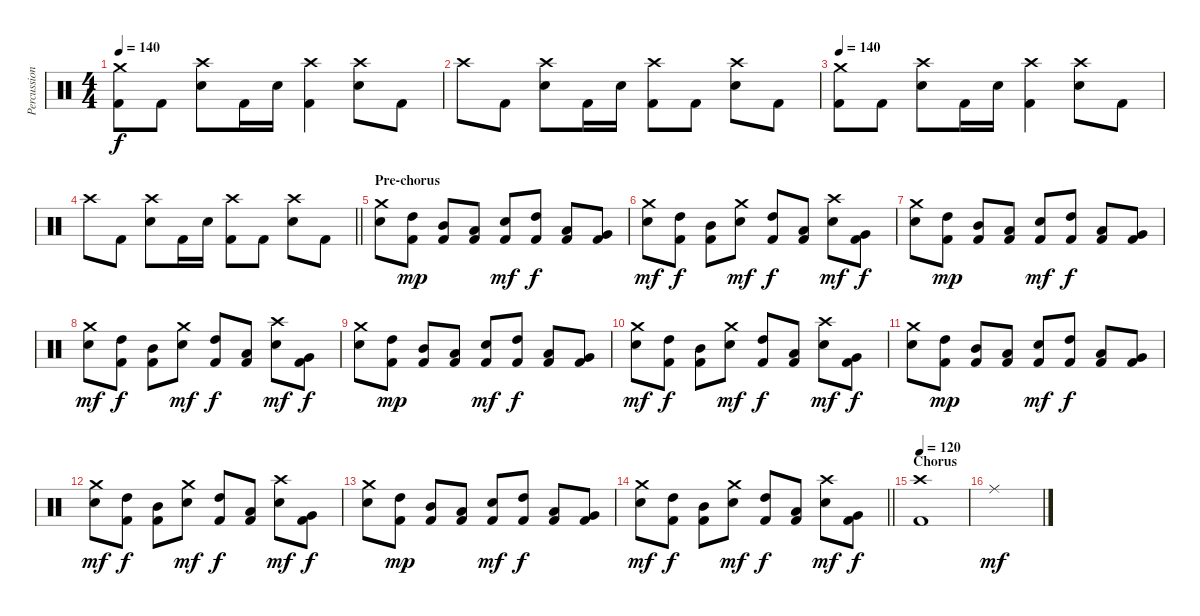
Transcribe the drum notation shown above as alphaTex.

\track ("Percussion" "Percussion") {instrument percussion}
\staff {score}
\articulation defaults
\ts (4 4)
\tempo 140
\clef neutral
\ks c
("Crash medium (hit)" "Kick (hit) 2").8{dy f} "Kick (hit) 2".8 ("Crash high (hit)" "Electric Snare (hit)").8 "Kick (hit) 2".16 "Electric Snare (hit)".16 ("Crash high (hit)" "Kick (hit) 2").4 ("Crash high (hit)" "Electric Snare (hit)").8 "Kick (hit) 2".8 |
"Crash high (hit)".8 "Kick (hit) 2".8 ("Crash high (hit)" "Electric Snare (hit)").8 "Kick (hit) 2".16 "Electric Snare (hit)".16 ("Crash high (hit)" "Kick (hit) 2").8 "Kick (hit) 2".8 ("Crash high (hit)" "Electric Snare (hit)").8 "Kick (hit) 2".8 |
\tempo 140
("Crash medium (hit)" "Kick (hit) 2").8 "Kick (hit) 2".8 ("Crash high (hit)" "Electric Snare (hit)").8 "Kick (hit) 2".16 "Electric Snare (hit)".16 ("Crash high (hit)" "Kick (hit) 2").4 ("Crash high (hit)" "Electric Snare (hit)").8 "Kick (hit) 2".8 |
\barLineRight lightlight "Crash high (hit)".8 "Kick (hit) 2".8
("Crash high (hit)" "Electric Snare (hit)").8 "Kick (hit) 2".16 "Electric Snare (hit)".16 ("Crash high (hit)" "Kick (hit) 2").8 "Kick (hit) 2".8 ("Crash high (hit)" "Electric Snare (hit)").8 "Kick (hit) 2".8 |
\section ("" "Pre-chorus")
("Crash medium (hit)" "Electric Snare (hit)").8 ("High Tom (hit)" "Kick (hit) 2").8{dy mp} ("Mid Tom (hit)" "Kick (hit) 2").8 ("Low Tom (hit)" "Kick (hit) 2").8 ("Electric Snare (hit)" "Kick (hit) 2").8{dy mf} ("High Tom (hit)" "Kick (hit) 2").8{dy f} ("Low Tom (hit)" "Kick (hit) 2").8 ("Very Low Tom (hit)" "Kick (hit) 2").8 |
("Crash medium (hit)" "Electric Snare (hit)").8{dy mf} ("High Tom (hit)" "Kick (hit) 2").8{dy f} ("Mid Tom (hit)" "Kick (hit) 2").8 ("Crash medium (hit)" "Electric Snare (hit)").8{dy mf} ("High Tom (hit)" "Kick (hit) 2").8{dy f} ("Low Tom (hit)" "Kick (hit) 2").8 ("Crash high (hit)" "Electric Snare (hit)").8{dy mf} ("Very Low Tom (hit)" "Kick (hit) 2").8{dy f} |
("Crash medium (hit)" "Electric Snare (hit)").8 ("High Tom (hit)" "Kick (hit) 2").8{dy mp} ("Mid Tom (hit)" "Kick (hit) 2").8 ("Low Tom (hit)" "Kick (hit) 2").8 ("Electric Snare (hit)" "Kick (hit) 2").8{dy mf} ("High Tom (hit)" "Kick (hit) 2").8{dy f} ("Low Tom (hit)" "Kick (hit) 2").8 ("Very Low Tom (hit)" "Kick (hit) 2").8 |
("Crash medium (hit)" "Electric Snare (hit)").8{dy mf} ("High Tom (hit)" "Kick (hit) 2").8{dy f} ("Mid Tom (hit)" "Kick (hit) 2").8 ("Crash medium (hit)" "Electric Snare (hit)").8{dy mf} ("High Tom (hit)" "Kick (hit) 2").8{dy f} ("Low Tom (hit)" "Kick (hit) 2").8 ("Crash high (hit)" "Electric Snare (hit)").8{dy mf} ("Very Low Tom (hit)" "Kick (hit) 2").8{dy f} |
("Crash medium (hit)" "Electric Snare (hit)").8 ("High Tom (hit)" "Kick (hit) 2").8{dy mp} ("Mid Tom (hit)" "Kick (hit) 2").8 ("Low Tom (hit)" "Kick (hit) 2").8 ("Electric Snare (hit)" "Kick (hit) 2").8{dy mf} ("High Tom (hit)" "Kick (hit) 2").8{dy f} ("Low Tom (hit)" "Kick (hit) 2").8 ("Very Low Tom (hit)" "Kick (hit) 2").8 |
("Crash medium (hit)" "Electric Snare (hit)").8{dy mf} ("High Tom (hit)" "Kick (hit) 2").8{dy f} ("Mid Tom (hit)" "Kick (hit) 2").8 ("Crash medium (hit)" "Electric Snare (hit)").8{dy mf} ("High Tom (hit)" "Kick (hit) 2").8{dy f} ("Low Tom (hit)" "Kick (hit) 2").8 ("Crash high (hit)" "Electric Snare (hit)").8{dy mf} ("Very Low Tom (hit)" "Kick (hit) 2").8{dy f} |
("Crash medium (hit)" "Electric Snare (hit)").8 ("High Tom (hit)" "Kick (hit) 2").8{dy mp} ("Mid Tom (hit)" "Kick (hit) 2").8 ("Low Tom (hit)" "Kick (hit) 2").8 ("Electric Snare (hit)" "Kick (hit) 2").8{dy mf} ("High Tom (hit)" "Kick (hit) 2").8{dy f} ("Low Tom (hit)" "Kick (hit) 2").8 ("Very Low Tom (hit)" "Kick (hit) 2").8 |
("Crash medium (hit)" "Electric Snare (hit)").8{dy mf} ("High Tom (hit)" "Kick (hit) 2").8{dy f} ("Mid Tom (hit)" "Kick (hit) 2").8 ("Crash medium (hit)" "Electric Snare (hit)").8{dy mf} ("High Tom (hit)" "Kick (hit) 2").8{dy f} ("Low Tom (hit)" "Kick (hit) 2").8 ("Crash high (hit)" "Electric Snare (hit)").8{dy mf} ("Very Low Tom (hit)" "Kick (hit) 2").8{dy f} |
("Crash medium (hit)" "Electric Snare (hit)").8 ("High Tom (hit)" "Kick (hit) 2").8{dy mp} ("Mid Tom (hit)" "Kick (hit) 2").8 ("Low Tom (hit)" "Kick (hit) 2").8 ("Electric Snare (hit)" "Kick (hit) 2").8{dy mf} ("High Tom (hit)" "Kick (hit) 2").8{dy f} ("Low Tom (hit)" "Kick (hit) 2").8 ("Very Low Tom (hit)" "Kick (hit) 2").8 |
\barLineRight lightlight
("Crash medium (hit)" "Electric Snare (hit)").8{dy mf} ("High Tom (hit)" "Kick (hit) 2").8{dy f} ("Mid Tom (hit)" "Kick (hit) 2").8 ("Crash medium (hit)" "Electric Snare (hit)").8{dy mf} ("High Tom (hit)" "Kick (hit) 2").8{dy f} ("Low Tom (hit)" "Kick (hit) 2").8 ("Crash high (hit)" "Electric Snare (hit)").8{dy mf} ("Very Low Tom (hit)" "Kick (hit) 2").8{dy f} |
\section ("" "Chorus")
\tempo 120
("Crash high (hit)" "Kick (hit) 2").1 |
"Ride (middle)".1{dy mf}
